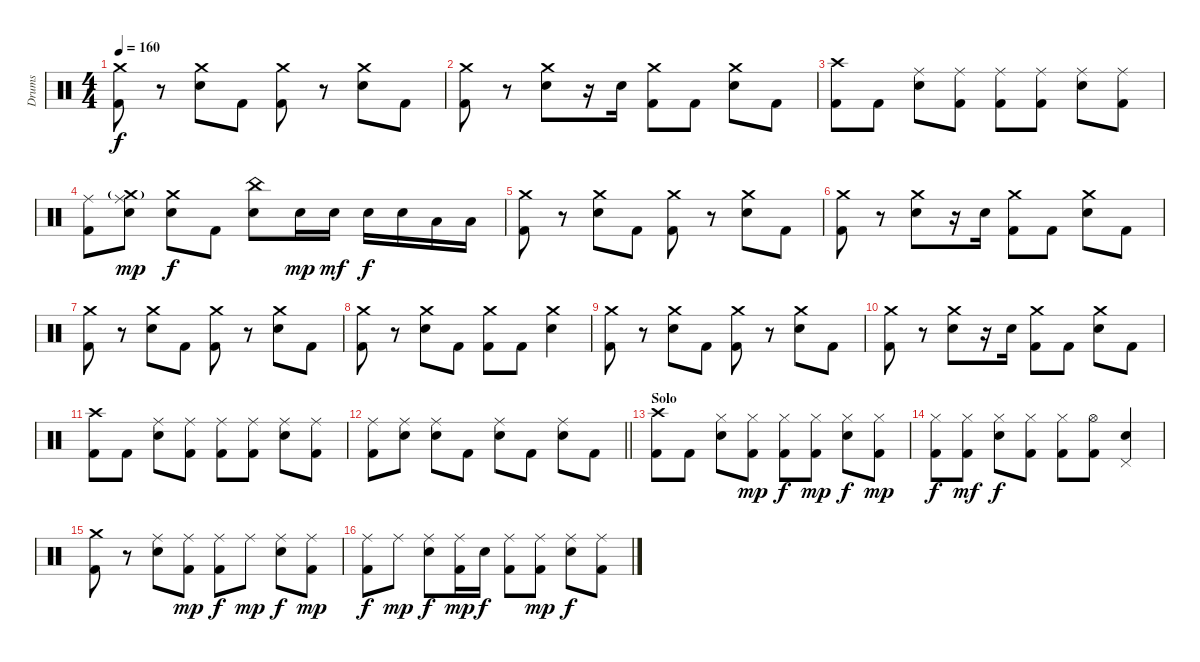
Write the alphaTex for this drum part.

\track ("Drums" "Drums") {instrument percussion}
\staff {score}
\articulation defaults
\ts (4 4)
\tempo 160
\clef neutral
\ks c
("Crash medium (hit)" "Kick (hit) 2").8{dy f} r.8 ("Crash medium (hit)" "Electric Snare (hit)").8 "Kick (hit) 2".8 ("Crash medium (hit)" "Kick (hit) 2").8 r.8 ("Crash medium (hit)" "Electric Snare (hit)").8 "Kick (hit) 2".8 |
("Crash medium (hit)" "Kick (hit) 2").8 r.8 ("Crash medium (hit)" "Electric Snare (hit)").8 r.16 "Electric Snare (hit)".16 ("Crash medium (hit)" "Kick (hit) 2").8 "Kick (hit) 2".8 ("Crash medium (hit)" "Electric Snare (hit)").8 "Kick (hit) 2".8 |
("Crash high (hit)" "Kick (hit) 2").8 "Kick (hit) 2".8 ("Ride (middle)" "Electric Snare (hit)").8 ("Ride (middle)" "Kick (hit) 2").8 ("Ride (middle)" "Kick (hit) 2").8 ("Ride (middle)" "Kick (hit) 2").8 ("Ride (middle)" "Electric Snare (hit)").8 ("Ride (middle)" "Kick (hit) 2").8 |
("Ride (middle)" "Kick (hit) 2").8 ("Crash medium (hit)"{g} "Ride (middle)" "Electric Snare (hit)").8{dy mp} ("Crash medium (hit)" "Electric Snare (hit)").8{dy f} "Kick (hit) 2".8 ("China (hit)" "Electric Snare (hit)").8 "Electric Snare (hit)".16{dy mp} "Electric Snare (hit)".16{dy mf} "Electric Snare (hit)".16{dy f} "Electric Snare (hit)".16 "Low Floor Tom (hit)".16 "Low Floor Tom (hit)".16 |
("Crash medium (hit)" "Kick (hit) 2").8 r.8 ("Crash medium (hit)" "Electric Snare (hit)").8 "Kick (hit) 2".8 ("Crash medium (hit)" "Kick (hit) 2").8 r.8 ("Crash medium (hit)" "Electric Snare (hit)").8 "Kick (hit) 2".8 |
("Crash medium (hit)" "Kick (hit) 2").8 r.8 ("Crash medium (hit)" "Electric Snare (hit)").8 r.16 "Electric Snare (hit)".16 ("Crash medium (hit)" "Kick (hit) 2").8 "Kick (hit) 2".8 ("Crash medium (hit)" "Electric Snare (hit)").8 "Kick (hit) 2".8 |
("Crash medium (hit)" "Kick (hit) 2").8 r.8 ("Crash medium (hit)" "Electric Snare (hit)").8 "Kick (hit) 2".8 ("Crash medium (hit)" "Kick (hit) 2").8 r.8 ("Crash medium (hit)" "Electric Snare (hit)").8 "Kick (hit) 2".8 |
("Crash medium (hit)" "Kick (hit) 2").8 r.8 ("Crash medium (hit)" "Electric Snare (hit)").8 "Kick (hit) 2".8 ("Crash medium (hit)" "Kick (hit) 2").8 "Kick (hit) 2".8 ("Crash medium (hit)" "Electric Snare (hit)").4 |
("Crash medium (hit)" "Kick (hit) 2").8 r.8 ("Crash medium (hit)" "Electric Snare (hit)").8 "Kick (hit) 2".8 ("Crash medium (hit)" "Kick (hit) 2").8 r.8 ("Crash medium (hit)" "Electric Snare (hit)").8 "Kick (hit) 2".8 |
("Crash medium (hit)" "Kick (hit) 2").8 r.8 ("Crash medium (hit)" "Electric Snare (hit)").8 r.16 "Electric Snare (hit)".16 ("Crash medium (hit)" "Kick (hit) 2").8 "Kick (hit) 2".8 ("Crash medium (hit)" "Electric Snare (hit)").8 "Kick (hit) 2".8 |
("Crash high (hit)" "Kick (hit) 2").8 "Kick (hit) 2".8 ("Ride (middle)" "Electric Snare (hit)").8 ("Ride (middle)" "Kick (hit) 2").8 ("Ride (middle)" "Kick (hit) 2").8 ("Ride (middle)" "Kick (hit) 2").8 ("Ride (middle)" "Electric Snare (hit)").8 ("Ride (middle)" "Kick (hit) 2").8 |
\barLineRight lightlight
("Ride (middle)" "Kick (hit) 2").8 ("Ride (middle)" "Electric Snare (hit)").8 ("Ride (middle)" "Electric Snare (hit)").8 "Kick (hit) 2".8 ("Ride (middle)" "Electric Snare (hit)").8 "Kick (hit) 2".8 ("Ride (middle)" "Electric Snare (hit)").8 "Kick (hit) 2".8 |
\section ("" "Solo")
("Crash high (hit)" "Kick (hit) 2").8 "Kick (hit) 2".8 ("Hi-Hat (closed)" "Electric Snare (hit)").8 ("Hi-Hat (closed)" "Kick (hit) 2").8{dy mp} ("Hi-Hat (closed)" "Kick (hit) 2").8{dy f} ("Hi-Hat (closed)" "Kick (hit) 2").8{dy mp} ("Hi-Hat (closed)" "Electric Snare (hit)").8{dy f} ("Hi-Hat (closed)" "Kick (hit) 2").8{dy mp} |
("Hi-Hat (closed)" "Kick (hit) 2").8{dy f} ("Hi-Hat (closed)" "Kick (hit) 2").8{dy mf} ("Hi-Hat (closed)" "Electric Snare (hit)").8{dy f} ("Hi-Hat (closed)" "Kick (hit) 2").8 ("Hi-Hat (closed)" "Kick (hit) 2").8 ("Hi-Hat (open)" "Kick (hit) 2").8 ("Pedal Hi-Hat (hit)" "Electric Snare (hit)").4 |
("Crash medium (hit)" "Kick (hit) 2").8 r.8 ("Ride (middle)" "Electric Snare (hit)").8 ("Ride (middle)" "Kick (hit) 2").8{dy mp} ("Ride (middle)" "Kick (hit) 2").8{dy f} "Ride (middle)".8{dy mp} ("Ride (middle)" "Electric Snare (hit)").8{dy f} ("Ride (middle)" "Kick (hit) 2").8{dy mp} |
("Ride (middle)" "Kick (hit) 2").8{dy f} "Ride (middle)".8{dy mp} ("Ride (middle)" "Electric Snare (hit)").8{dy f} ("Ride (middle)" "Kick (hit) 2").16{dy mp} "Electric Snare (hit)".16{dy f} ("Ride (middle)" "Kick (hit) 2").8 ("Ride (middle)" "Kick (hit) 2").8{dy mp} ("Ride (middle)" "Electric Snare (hit)").8{dy f} ("Ride (middle)" "Kick (hit) 2").8
